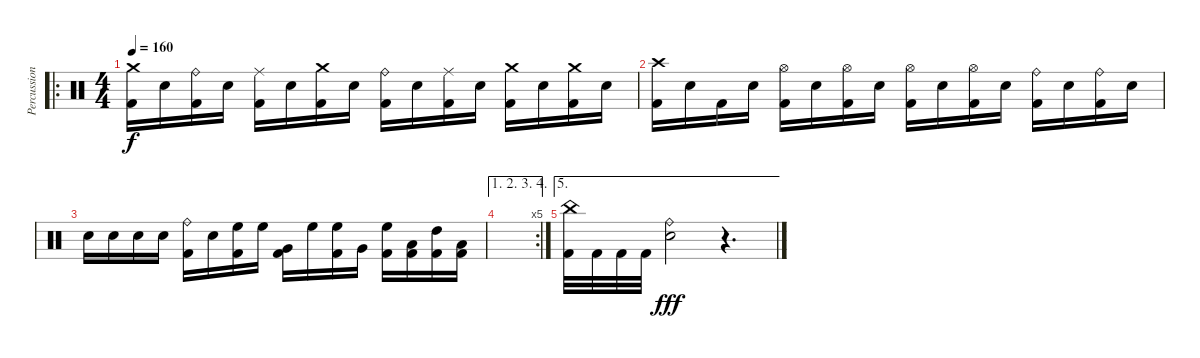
\track ("Percussion" "Percussion") {instrument percussion}
\staff {score}
\articulation defaults
\ro
\ts (4 4)
\tempo 160
\clef neutral
\ks c
("Crash medium (hit)" "Kick (hit) 2").16{dy f} "Electric Snare (hit)".16 ("Ride (bell)" "Kick (hit) 2").16 "Electric Snare (hit)".16 ("Ride (middle)" "Kick (hit) 2").16 "Electric Snare (hit)".16 ("Crash medium (hit)" "Kick (hit) 2").16 "Electric Snare (hit)".16 ("Ride (bell)" "Kick (hit) 2").16 "Electric Snare (hit)".16 ("Ride (middle)" "Kick (hit) 2").16 "Electric Snare (hit)".16 ("Crash medium (hit)" "Kick (hit) 2").16 "Electric Snare (hit)".16 ("Crash medium (hit)" "Kick (hit) 2").16 "Electric Snare (hit)".16 |
("Crash high (hit)" "Kick (hit) 2").16 "Electric Snare (hit)".16 "Kick (hit) 2".16 "Electric Snare (hit)".16 ("Hi-Hat (open)" "Kick (hit) 2").16 "Electric Snare (hit)".16 ("Hi-Hat (open)" "Kick (hit) 2").16 "Electric Snare (hit)".16 ("Hi-Hat (open)" "Kick (hit) 2").16 "Electric Snare (hit)".16 ("Hi-Hat (open)" "Kick (hit) 2").16 "Electric Snare (hit)".16 ("Ride (bell)" "Kick (hit) 2").16 "Electric Snare (hit)".16 ("Ride (bell)" "Kick (hit) 2").16 "Electric Snare (hit)".16 |
"Electric Snare (hit)".16 "Electric Snare (hit)".16 "Electric Snare (hit)".16 "Electric Snare (hit)".16 ("Ride (bell)" "Kick (hit) 2").16 "Electric Snare (hit)".16 ("High Floor Tom (hit)" "Kick (hit) 2").16 "High Floor Tom (hit)".16 ("Very Low Tom (hit)" "Kick (hit) 2").16 "High Floor Tom (hit)".16 ("High Floor Tom (hit)" "Kick (hit) 2").16 "Very Low Tom (hit)".16 ("High Floor Tom (hit)" "Kick (hit) 2").16 ("Low Floor Tom (hit)" "Kick (hit) 2").16 ("High Tom (hit)" "Kick (hit) 2").16 ("Low Floor Tom (hit)" "Kick (hit) 2").16 |
\ae (1 2 3 4)
\rc 5
|
\ae 5
("China (hit)" "Kick (hit) 2").32 "Kick (hit) 2".32 "Kick (hit) 2".32 "Kick (hit) 2".32 ("Ride (bell)" "Electric Snare (hit)").2{dy fff} r.4{d}
